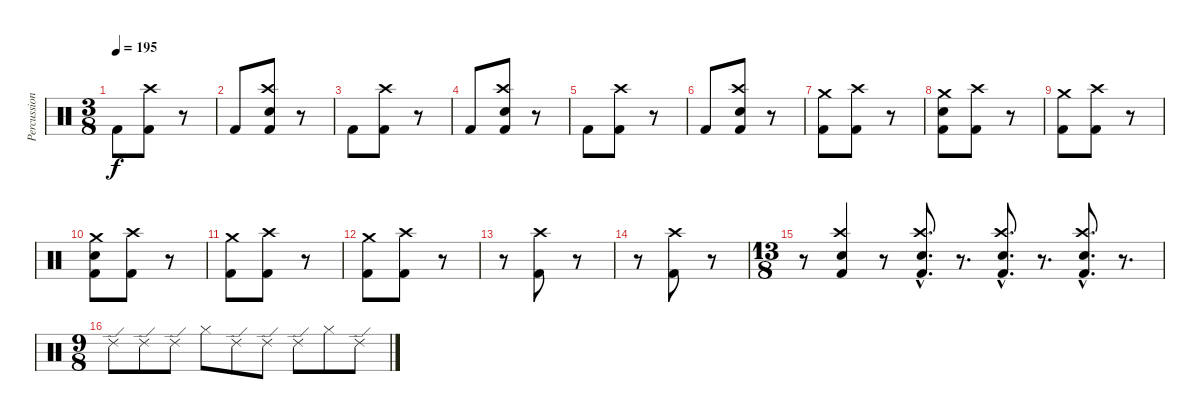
\track ("Percussion" "Percussion") {instrument percussion}
\staff {score}
\articulation defaults
\ts (3 8)
\tempo 195
\clef neutral
\ks c "Kick (hit) 2".8{dy f}
("Kick (hit) 2" "Crash high (hit)").8 r.8 |
"Kick (hit) 2".8 ("Kick (hit) 2" "Crash high (hit)" "Electric Snare (hit)").8 r.8 |
"Kick (hit) 2".8 ("Kick (hit) 2" "Crash high (hit)").8 r.8 |
"Kick (hit) 2".8 ("Kick (hit) 2" "Crash high (hit)" "Electric Snare (hit)").8 r.8 |
"Kick (hit) 2".8 ("Kick (hit) 2" "Crash high (hit)").8 r.8 |
"Kick (hit) 2".8 ("Kick (hit) 2" "Crash high (hit)" "Electric Snare (hit)").8 r.8 |
("Kick (hit) 2" "Crash medium (hit)").8 ("Kick (hit) 2" "Crash high (hit)").8 r.8 |
("Kick (hit) 2" "Crash medium (hit)" "Electric Snare (hit)").8 ("Kick (hit) 2" "Crash high (hit)").8 r.8 |
("Kick (hit) 2" "Crash medium (hit)").8 ("Kick (hit) 2" "Crash high (hit)").8 r.8 |
("Kick (hit) 2" "Crash medium (hit)" "Electric Snare (hit)").8 ("Kick (hit) 2" "Crash high (hit)").8 r.8 |
("Kick (hit) 2" "Crash medium (hit)").8 ("Kick (hit) 2" "Crash high (hit)").8 r.8 |
("Kick (hit) 2" "Crash medium (hit)").8 ("Kick (hit) 2" "Crash high (hit)").8 r.8 |
r.8 ("Kick (hit) 2" "Crash high (hit)").8 r.8 |
r.8 ("Kick (hit) 2" "Crash high (hit)").8 r.8 |
\ts (13 8)
r.8 ("Kick (hit) 2" "Crash high (hit)" "Electric Snare (hit)").4 r.8 ("Kick (hit) 2"{hac} "Crash high (hit)"{hac} "Electric Snare (hit)"{hac}).8{d} r.8{d} ("Kick (hit) 2"{hac} "Crash high (hit)"{hac} "Electric Snare (hit)"{hac}).8{d} r.8{d} ("Kick (hit) 2"{hac} "Crash high (hit)"{hac} "Electric Snare (hit)"{hac}).8{d} r.8{d} |
\ts (9 8)
"Ride (edge) 2".8 "Ride (edge) 2".8 "Ride (edge) 2".8 "Hi-Hat (closed)".8 "Ride (edge) 2".8 "Ride (edge) 2".8 "Ride (edge) 2".8 "Hi-Hat (closed)".8 "Ride (edge) 2".8
